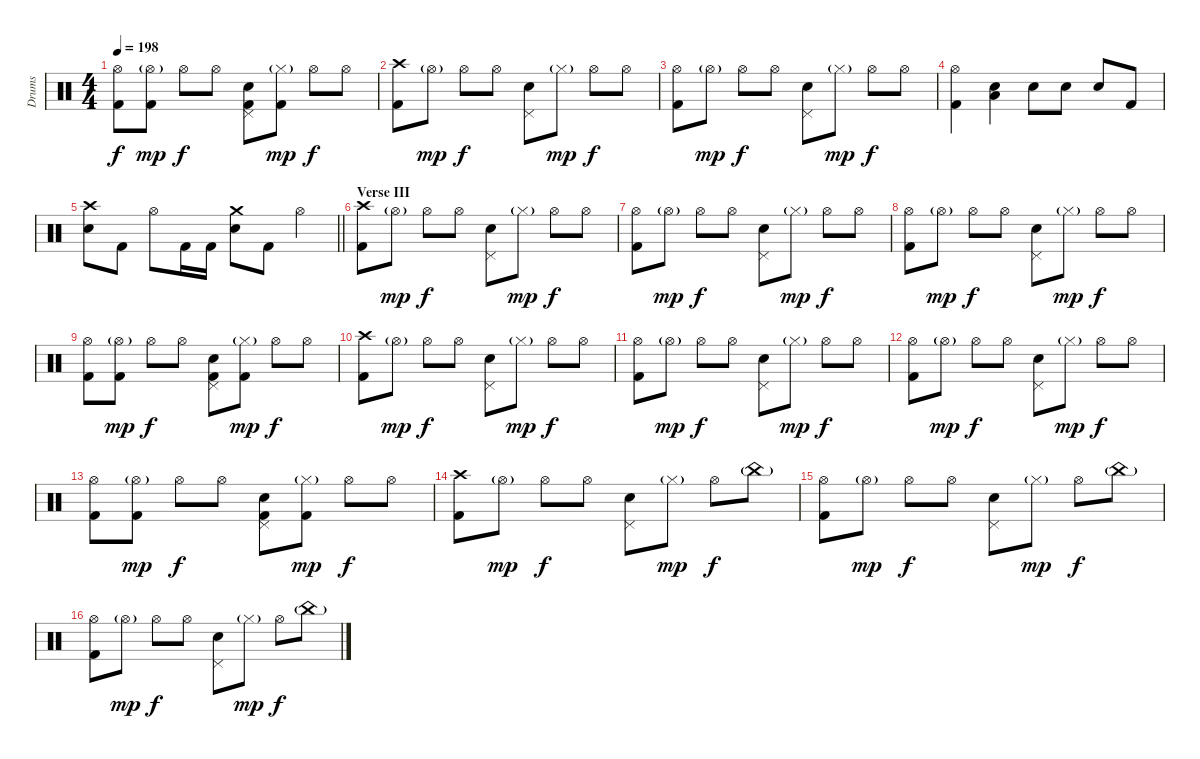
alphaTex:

\track ("Drums" "Drums") {instrument percussion}
\staff {score}
\articulation defaults
\ts (4 4)
\tempo 198
\clef neutral
\ks c
("Hi-Hat (open)" "Kick (hit) 2").8{dy f} ("Hi-Hat (open)"{g} "Kick (hit) 2").8{dy mp} "Hi-Hat (open)".8{dy f} "Hi-Hat (open)".8 ("Pedal Hi-Hat (hit)" "Electric Snare (hit)" "Kick (hit) 2").8 ("Hi-Hat (closed)"{g} "Kick (hit) 2").8{dy mp} "Hi-Hat (open)".8{dy f} "Hi-Hat (open)".8 |
("Crash high (hit)" "Kick (hit) 2").8 "Hi-Hat (open)"{g}.8{dy mp} "Hi-Hat (open)".8{dy f} "Hi-Hat (open)".8 ("Pedal Hi-Hat (hit)" "Electric Snare (hit)").8 "Hi-Hat (closed)"{g}.8{dy mp} "Hi-Hat (open)".8{dy f} "Hi-Hat (open)".8 |
("Hi-Hat (open)" "Kick (hit) 2").8 "Hi-Hat (open)"{g}.8{dy mp} "Hi-Hat (open)".8{dy f} "Hi-Hat (open)".8 ("Pedal Hi-Hat (hit)" "Electric Snare (hit)").8 "Hi-Hat (closed)"{g}.8{dy mp} "Hi-Hat (open)".8{dy f} "Hi-Hat (open)".8 |
("Hi-Hat (open)" "Kick (hit) 2").4 ("Low Floor Tom (hit)" "Electric Snare (hit)").4 "Electric Snare (hit)".8 "Electric Snare (hit)".8 "Electric Snare (hit)".8 "Kick (hit) 2".8 |
\barLineRight lightlight
("Crash high (hit)" "Electric Snare (hit)").8 "Kick (hit) 2".8 "Hi-Hat (open)".8 "Kick (hit) 2".16 "Kick (hit) 2".16 ("Crash medium (hit)" "Electric Snare (hit)").8 "Kick (hit) 2".8 "Hi-Hat (open)".4 |
\section ("" "Verse III")
("Crash high (hit)" "Kick (hit) 2").8 "Hi-Hat (open)"{g}.8{dy mp} "Hi-Hat (open)".8{dy f} "Hi-Hat (open)".8 ("Pedal Hi-Hat (hit)" "Electric Snare (hit)").8 "Hi-Hat (closed)"{g}.8{dy mp} "Hi-Hat (open)".8{dy f} "Hi-Hat (open)".8 |
("Hi-Hat (open)" "Kick (hit) 2").8 "Hi-Hat (open)"{g}.8{dy mp} "Hi-Hat (open)".8{dy f} "Hi-Hat (open)".8 ("Pedal Hi-Hat (hit)" "Electric Snare (hit)").8 "Hi-Hat (closed)"{g}.8{dy mp} "Hi-Hat (open)".8{dy f} "Hi-Hat (open)".8 |
("Hi-Hat (open)" "Kick (hit) 2").8 "Hi-Hat (open)"{g}.8{dy mp} "Hi-Hat (open)".8{dy f} "Hi-Hat (open)".8 ("Pedal Hi-Hat (hit)" "Electric Snare (hit)").8 "Hi-Hat (closed)"{g}.8{dy mp} "Hi-Hat (open)".8{dy f} "Hi-Hat (open)".8 |
("Hi-Hat (open)" "Kick (hit) 2").8 ("Hi-Hat (open)"{g} "Kick (hit) 2").8{dy mp} "Hi-Hat (open)".8{dy f} "Hi-Hat (open)".8 ("Pedal Hi-Hat (hit)" "Electric Snare (hit)" "Kick (hit) 2").8 ("Hi-Hat (closed)"{g} "Kick (hit) 2").8{dy mp} "Hi-Hat (open)".8{dy f} "Hi-Hat (open)".8 |
("Crash high (hit)" "Kick (hit) 2").8 "Hi-Hat (open)"{g}.8{dy mp} "Hi-Hat (open)".8{dy f} "Hi-Hat (open)".8 ("Pedal Hi-Hat (hit)" "Electric Snare (hit)").8 "Hi-Hat (closed)"{g}.8{dy mp} "Hi-Hat (open)".8{dy f} "Hi-Hat (open)".8 |
("Hi-Hat (open)" "Kick (hit) 2").8 "Hi-Hat (open)"{g}.8{dy mp} "Hi-Hat (open)".8{dy f} "Hi-Hat (open)".8 ("Pedal Hi-Hat (hit)" "Electric Snare (hit)").8 "Hi-Hat (closed)"{g}.8{dy mp} "Hi-Hat (open)".8{dy f} "Hi-Hat (open)".8 |
("Hi-Hat (open)" "Kick (hit) 2").8 "Hi-Hat (open)"{g}.8{dy mp} "Hi-Hat (open)".8{dy f} "Hi-Hat (open)".8 ("Pedal Hi-Hat (hit)" "Electric Snare (hit)").8 "Hi-Hat (closed)"{g}.8{dy mp} "Hi-Hat (open)".8{dy f} "Hi-Hat (open)".8 |
("Hi-Hat (open)" "Kick (hit) 2").8 ("Hi-Hat (open)"{g} "Kick (hit) 2").8{dy mp} "Hi-Hat (open)".8{dy f} "Hi-Hat (open)".8 ("Pedal Hi-Hat (hit)" "Electric Snare (hit)" "Kick (hit) 2").8 ("Hi-Hat (closed)"{g} "Kick (hit) 2").8{dy mp} "Hi-Hat (open)".8{dy f} "Hi-Hat (open)".8 |
("Crash high (hit)" "Kick (hit) 2").8 "Hi-Hat (open)"{g}.8{dy mp} "Hi-Hat (open)".8{dy f} "Hi-Hat (open)".8 ("Pedal Hi-Hat (hit)" "Electric Snare (hit)").8 "Hi-Hat (closed)"{g}.8{dy mp} "Hi-Hat (open)".8{dy f} "China (hit)"{g}.8 |
("Hi-Hat (open)" "Kick (hit) 2").8 "Hi-Hat (open)"{g}.8{dy mp} "Hi-Hat (open)".8{dy f} "Hi-Hat (open)".8 ("Pedal Hi-Hat (hit)" "Electric Snare (hit)").8 "Hi-Hat (closed)"{g}.8{dy mp} "Hi-Hat (open)".8{dy f} "China (hit)"{g}.8 |
("Hi-Hat (open)" "Kick (hit) 2").8 "Hi-Hat (open)"{g}.8{dy mp} "Hi-Hat (open)".8{dy f} "Hi-Hat (open)".8 ("Pedal Hi-Hat (hit)" "Electric Snare (hit)").8 "Hi-Hat (closed)"{g}.8{dy mp} "Hi-Hat (open)".8{dy f} "China (hit)"{g}.8
